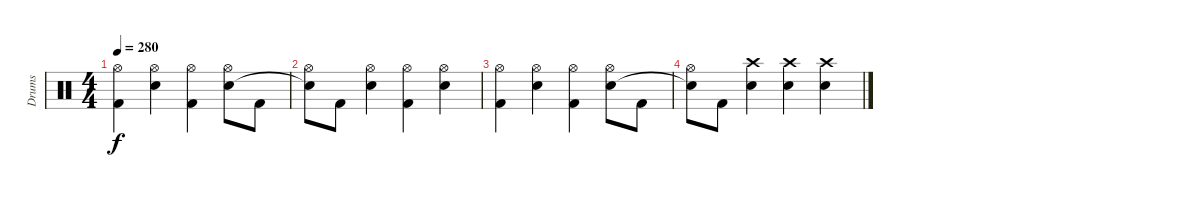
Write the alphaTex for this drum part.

\track ("Drums" "Drums") {instrument percussion}
\staff {score}
\articulation defaults
\ts (4 4)
\tempo 280
\clef neutral
\ks c
("Hi-Hat (open)" "Kick (hit) 2").4{dy f} ("Hi-Hat (open)" "Snare (hit) 2").4 ("Hi-Hat (open)" "Kick (hit) 2").4 ("Hi-Hat (open)" "Snare (hit) 2").8 "Kick (hit) 2".8 |
("Hi-Hat (open)" "Snare (hit)"{t}).8 "Kick (hit) 2".8 ("Hi-Hat (open)" "Snare (hit) 2").4 ("Hi-Hat (open)" "Kick (hit) 2").4 ("Hi-Hat (open)" "Snare (hit) 2").4 |
("Hi-Hat (open)" "Kick (hit) 2").4 ("Hi-Hat (open)" "Snare (hit) 2").4 ("Hi-Hat (open)" "Kick (hit) 2").4 ("Hi-Hat (open)" "Snare (hit) 2").8 "Kick (hit) 2".8 |
("Hi-Hat (open)" "Snare (hit)"{t}).8 "Kick (hit) 2".8 ("Crash high (hit)" "Snare (hit) 2").4 ("Crash high (hit)" "Snare (hit) 2").4 ("Crash high (hit)" "Snare (hit) 2").4
